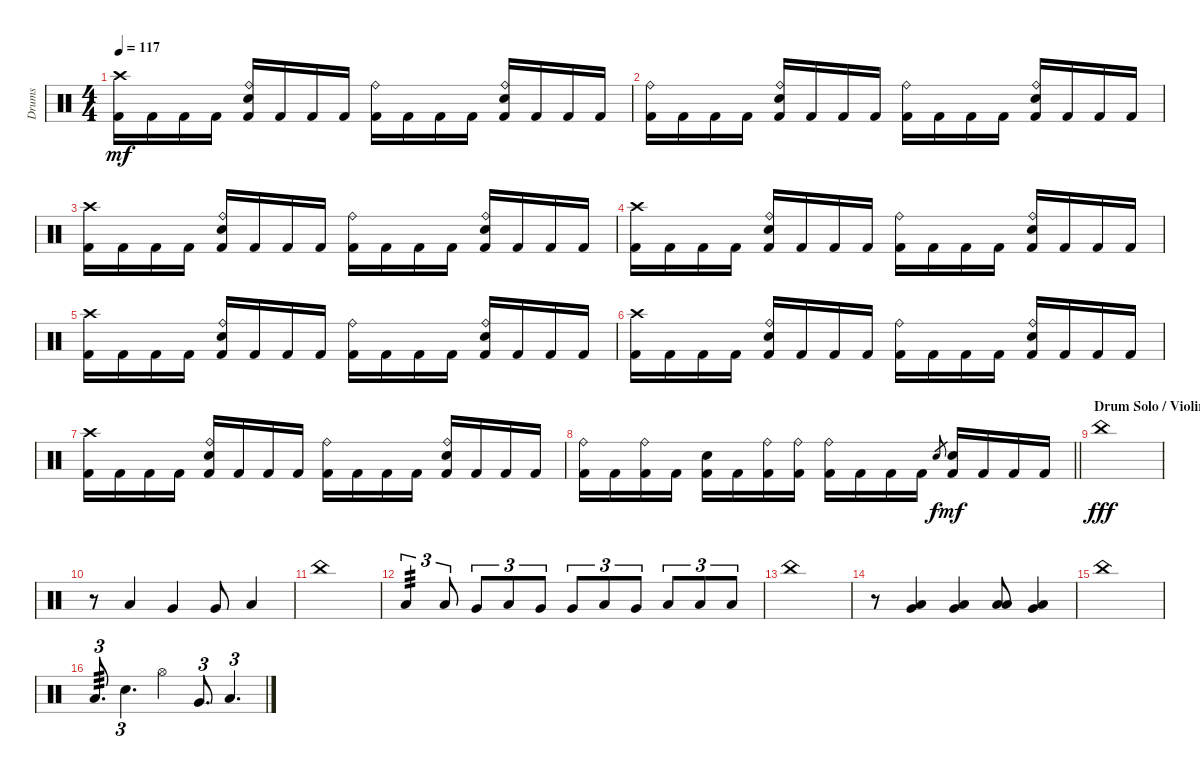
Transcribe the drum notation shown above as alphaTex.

\track ("Drums" "Drums") {instrument percussion}
\staff {score}
\articulation defaults
\ts (4 4)
\tempo 117
\clef neutral
\ks c
("Crash high (hit)" "Kick (hit) 2").16{dy mf} "Kick (hit) 2".16 "Kick (hit) 2".16 "Kick (hit) 2".16 ("Ride (bell)" "Snare (hit) 2" "Kick (hit) 2").16 "Kick (hit) 2".16 "Kick (hit) 2".16 "Kick (hit) 2".16 ("Ride (bell)" "Kick (hit) 2").16 "Kick (hit) 2".16 "Kick (hit) 2".16 "Kick (hit) 2".16 ("Ride (bell)" "Snare (hit) 2" "Kick (hit) 2").16 "Kick (hit) 2".16 "Kick (hit) 2".16 "Kick (hit) 2".16 |
("Ride (bell)" "Kick (hit) 2").16 "Kick (hit) 2".16 "Kick (hit) 2".16 "Kick (hit) 2".16 ("Ride (bell)" "Snare (hit) 2" "Kick (hit) 2").16 "Kick (hit) 2".16 "Kick (hit) 2".16 "Kick (hit) 2".16 ("Ride (bell)" "Kick (hit) 2").16 "Kick (hit) 2".16 "Kick (hit) 2".16 "Kick (hit) 2".16 ("Ride (bell)" "Snare (hit) 2" "Kick (hit) 2").16 "Kick (hit) 2".16 "Kick (hit) 2".16 "Kick (hit) 2".16 |
("Crash high (hit)" "Kick (hit) 2").16 "Kick (hit) 2".16 "Kick (hit) 2".16 "Kick (hit) 2".16 ("Ride (bell)" "Snare (hit) 2" "Kick (hit) 2").16 "Kick (hit) 2".16 "Kick (hit) 2".16 "Kick (hit) 2".16 ("Ride (bell)" "Kick (hit) 2").16 "Kick (hit) 2".16 "Kick (hit) 2".16 "Kick (hit) 2".16 ("Ride (bell)" "Snare (hit) 2" "Kick (hit) 2").16 "Kick (hit) 2".16 "Kick (hit) 2".16 "Kick (hit) 2".16 |
("Crash high (hit)" "Kick (hit) 2").16 "Kick (hit) 2".16 "Kick (hit) 2".16 "Kick (hit) 2".16 ("Ride (bell)" "Snare (hit) 2" "Kick (hit) 2").16 "Kick (hit) 2".16 "Kick (hit) 2".16 "Kick (hit) 2".16 ("Ride (bell)" "Kick (hit) 2").16 "Kick (hit) 2".16 "Kick (hit) 2".16 "Kick (hit) 2".16 ("Ride (bell)" "Snare (hit) 2" "Kick (hit) 2").16 "Kick (hit) 2".16 "Kick (hit) 2".16 "Kick (hit) 2".16 |
("Crash high (hit)" "Kick (hit) 2").16 "Kick (hit) 2".16 "Kick (hit) 2".16 "Kick (hit) 2".16 ("Ride (bell)" "Snare (hit) 2" "Kick (hit) 2").16 "Kick (hit) 2".16 "Kick (hit) 2".16 "Kick (hit) 2".16 ("Ride (bell)" "Kick (hit) 2").16 "Kick (hit) 2".16 "Kick (hit) 2".16 "Kick (hit) 2".16 ("Ride (bell)" "Snare (hit) 2" "Kick (hit) 2").16 "Kick (hit) 2".16 "Kick (hit) 2".16 "Kick (hit) 2".16 |
("Crash high (hit)" "Kick (hit) 2").16 "Kick (hit) 2".16 "Kick (hit) 2".16 "Kick (hit) 2".16 ("Ride (bell)" "Snare (hit) 2" "Kick (hit) 2").16 "Kick (hit) 2".16 "Kick (hit) 2".16 "Kick (hit) 2".16 ("Ride (bell)" "Kick (hit) 2").16 "Kick (hit) 2".16 "Kick (hit) 2".16 "Kick (hit) 2".16 ("Ride (bell)" "Snare (hit) 2" "Kick (hit) 2").16 "Kick (hit) 2".16 "Kick (hit) 2".16 "Kick (hit) 2".16 |
("Crash high (hit)" "Kick (hit) 2").16 "Kick (hit) 2".16 "Kick (hit) 2".16 "Kick (hit) 2".16 ("Ride (bell)" "Snare (hit) 2" "Kick (hit) 2").16 "Kick (hit) 2".16 "Kick (hit) 2".16 "Kick (hit) 2".16 ("Ride (bell)" "Kick (hit) 2").16 "Kick (hit) 2".16 "Kick (hit) 2".16 "Kick (hit) 2".16 ("Ride (bell)" "Snare (hit) 2" "Kick (hit) 2").16 "Kick (hit) 2".16 "Kick (hit) 2".16 "Kick (hit) 2".16 |
\barLineRight lightlight
("Ride (bell)" "Kick (hit) 2").16 "Kick (hit) 2".16 ("Ride (bell)" "Kick (hit) 2").16 "Kick (hit) 2".16 ("Snare (hit) 2" "Kick (hit) 2").16 "Kick (hit) 2".16 ("Ride (bell)" "Kick (hit) 2").16 ("Ride (bell)" "Kick (hit) 2").16 ("Ride (bell)" "Kick (hit) 2").16 "Kick (hit) 2".16 "Kick (hit) 2".16 "Kick (hit) 2".16 "Snare (hit) 2".8{gr dy f} ("Snare (hit) 2" "Kick (hit) 2").16{dy mf} "Kick (hit) 2".16 "Kick (hit) 2".16 "Kick (hit) 2".16 |
\section ("" "Drum Solo / Violins")
"China (hit)".1{dy fff} |
r.8 "Low Tom (hit)".4 "Very Low Tom (hit)".4 "Very Low Tom (hit)".8 "Low Floor Tom (hit)".4 |
"China (hit)".1 |
"Low Tom (hit)".4{tu (3 2) tp 3} "Low Tom (hit)".8{tu (3 2)} "Very Low Tom (hit)".8{tu (3 2)} "Low Tom (hit)".8{tu (3 2)} "Very Low Tom (hit)".8{tu (3 2)} "Very Low Tom (hit)".8{tu (3 2)} "Low Floor Tom (hit)".8{tu (3 2)} "Very Low Tom (hit)".8{tu (3 2)} "Low Tom (hit)".8{tu (3 2)} "Low Floor Tom (hit)".8{tu (3 2)} "Low Floor Tom (hit)".8{tu (3 2)} |
"China (hit)".1 |
r.8 ("Very Low Tom (hit)" "Low Floor Tom (hit)").4 ("Low Tom (hit)" "Very Low Tom (hit)").4 ("Low Tom (hit)" "Low Floor Tom (hit)").8 ("Very Low Tom (hit)" "Low Floor Tom (hit)").4 |
"China (hit)".1 |
"Low Tom (hit)".8{d tu (3 2) tp 3} "Snare (hit) 2".4{d tu (3 2)} "Hi-Hat (open)".4 "Very Low Tom (hit)".8{d tu (3 2)} "Low Floor Tom (hit)".4{d tu (3 2)}
